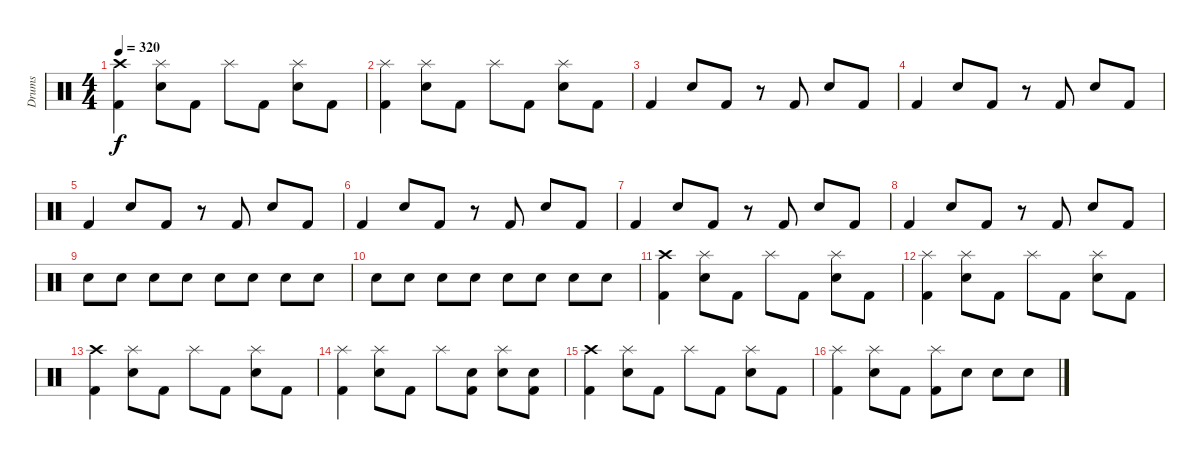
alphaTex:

\track ("Drums" "Drums") {instrument percussion}
\staff {score}
\articulation defaults
\ts (4 4)
\tempo 320
\clef neutral
\ks c
("Crash high (hit)" "Kick (hit) 2").4{dy f} ("Splash (hit)" "Electric Snare (hit)").8 "Kick (hit) 2".8 "Splash (hit)".8 "Kick (hit) 2".8 ("Splash (hit)" "Electric Snare (hit)").8 "Kick (hit) 2".8 |
("Splash (hit)" "Kick (hit) 2").4 ("Splash (hit)" "Electric Snare (hit)").8 "Kick (hit) 2".8 "Splash (hit)".8 "Kick (hit) 2".8 ("Splash (hit)" "Electric Snare (hit)").8 "Kick (hit) 2".8 |
"Kick (hit) 2".4 "Electric Snare (hit)".8 "Kick (hit) 2".8 r.8 "Kick (hit) 2".8 "Electric Snare (hit)".8 "Kick (hit) 2".8 |
"Kick (hit) 2".4 "Electric Snare (hit)".8 "Kick (hit) 2".8 r.8 "Kick (hit) 2".8 "Electric Snare (hit)".8 "Kick (hit) 2".8 |
"Kick (hit) 2".4 "Electric Snare (hit)".8 "Kick (hit) 2".8 r.8 "Kick (hit) 2".8 "Electric Snare (hit)".8 "Kick (hit) 2".8 |
"Kick (hit) 2".4 "Electric Snare (hit)".8 "Kick (hit) 2".8 r.8 "Kick (hit) 2".8 "Electric Snare (hit)".8 "Kick (hit) 2".8 |
"Kick (hit) 2".4 "Electric Snare (hit)".8 "Kick (hit) 2".8 r.8 "Kick (hit) 2".8 "Electric Snare (hit)".8 "Kick (hit) 2".8 |
"Kick (hit) 2".4 "Electric Snare (hit)".8 "Kick (hit) 2".8 r.8 "Kick (hit) 2".8 "Electric Snare (hit)".8 "Kick (hit) 2".8 |
"Electric Snare (hit)".8 "Electric Snare (hit)".8 "Electric Snare (hit)".8 "Electric Snare (hit)".8 "Electric Snare (hit)".8 "Electric Snare (hit)".8 "Electric Snare (hit)".8 "Electric Snare (hit)".8 |
"Electric Snare (hit)".8 "Electric Snare (hit)".8 "Electric Snare (hit)".8 "Electric Snare (hit)".8 "Electric Snare (hit)".8 "Electric Snare (hit)".8 "Electric Snare (hit)".8 "Electric Snare (hit)".8 |
("Crash high (hit)" "Kick (hit) 2").4 ("Splash (hit)" "Electric Snare (hit)").8 "Kick (hit) 2".8 "Splash (hit)".8 "Kick (hit) 2".8 ("Splash (hit)" "Electric Snare (hit)").8 "Kick (hit) 2".8 |
("Splash (hit)" "Kick (hit) 2").4 ("Splash (hit)" "Electric Snare (hit)").8 "Kick (hit) 2".8 "Splash (hit)".8 "Kick (hit) 2".8 ("Splash (hit)" "Electric Snare (hit)").8 "Kick (hit) 2".8 |
("Crash high (hit)" "Kick (hit) 2").4 ("Splash (hit)" "Electric Snare (hit)").8 "Kick (hit) 2".8 "Splash (hit)".8 "Kick (hit) 2".8 ("Splash (hit)" "Electric Snare (hit)").8 "Kick (hit) 2".8 |
("Splash (hit)" "Kick (hit) 2").4 ("Splash (hit)" "Electric Snare (hit)").8 "Kick (hit) 2".8 "Splash (hit)".8 ("Electric Snare (hit)" "Kick (hit) 2").8 ("Splash (hit)" "Electric Snare (hit)").8 ("Electric Snare (hit)" "Kick (hit) 2").8 |
("Crash high (hit)" "Kick (hit) 2").4 ("Splash (hit)" "Electric Snare (hit)").8 "Kick (hit) 2".8 "Splash (hit)".8 "Kick (hit) 2".8 ("Splash (hit)" "Electric Snare (hit)").8 "Kick (hit) 2".8 |
("Splash (hit)" "Kick (hit) 2").4 ("Splash (hit)" "Electric Snare (hit)").8 "Kick (hit) 2".8 ("Splash (hit)" "Kick (hit) 2").8 "Electric Snare (hit)".8 "Electric Snare (hit)".8 "Electric Snare (hit)".8
